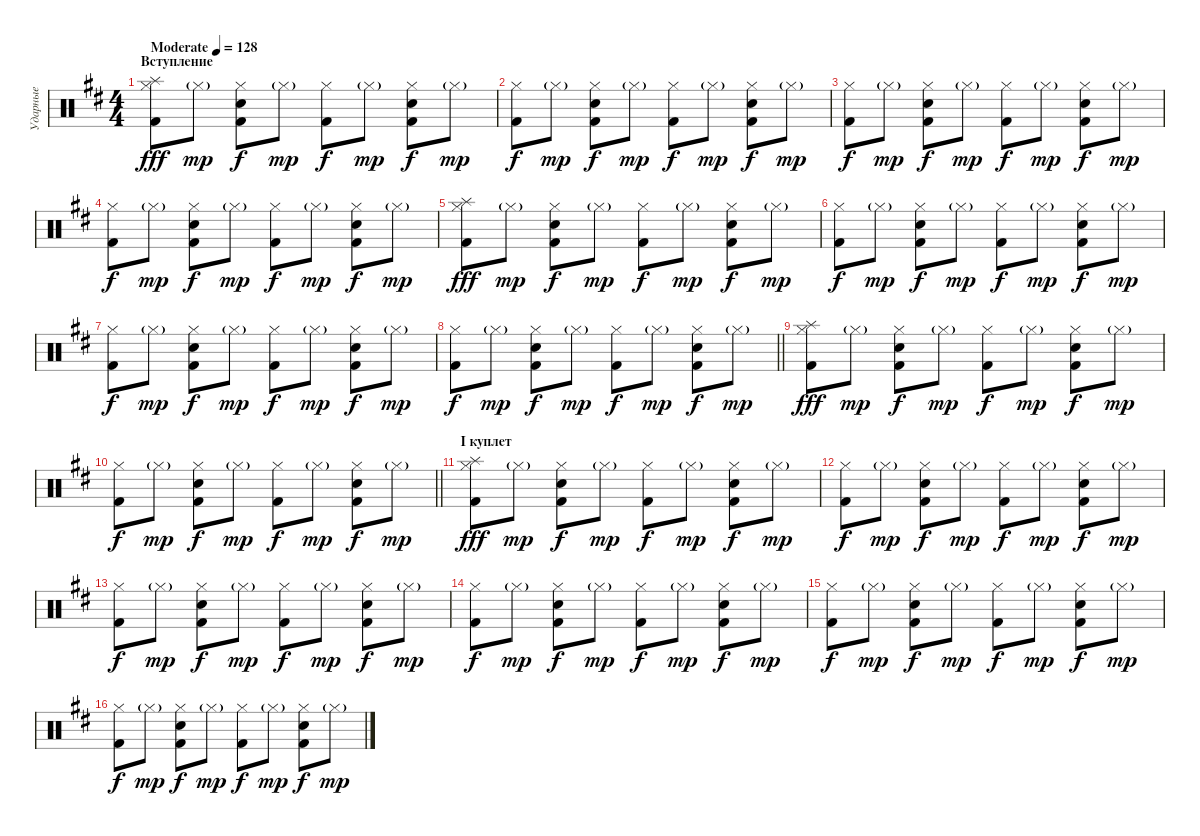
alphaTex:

\track ("Ударные" "Ударные") {instrument percussion}
\staff {score}
\articulation defaults
\ts (4 4)
\section ("" "Вступление")
\tempo (128 "Moderate")
\clef neutral
\ks bminor
("Hi-Hat (closed)" "Splash (hit)" "Kick (hit) 2").8{dy fff} "Hi-Hat (closed)"{g}.8{dy mp} ("Hi-Hat (closed)" "Kick (hit) 2" "Snare (hit) 2").8{dy f} "Hi-Hat (closed)"{g}.8{dy mp} ("Hi-Hat (closed)" "Kick (hit) 2").8{dy f} "Hi-Hat (closed)"{g}.8{dy mp} ("Hi-Hat (closed)" "Kick (hit) 2" "Snare (hit) 2").8{dy f} "Hi-Hat (closed)"{g}.8{dy mp} |
("Hi-Hat (closed)" "Kick (hit) 2").8{dy f} "Hi-Hat (closed)"{g}.8{dy mp} ("Hi-Hat (closed)" "Kick (hit) 2" "Snare (hit) 2").8{dy f} "Hi-Hat (closed)"{g}.8{dy mp} ("Hi-Hat (closed)" "Kick (hit) 2").8{dy f} "Hi-Hat (closed)"{g}.8{dy mp} ("Hi-Hat (closed)" "Kick (hit) 2" "Snare (hit) 2").8{dy f} "Hi-Hat (closed)"{g}.8{dy mp} |
("Hi-Hat (closed)" "Kick (hit) 2").8{dy f} "Hi-Hat (closed)"{g}.8{dy mp} ("Hi-Hat (closed)" "Kick (hit) 2" "Snare (hit) 2").8{dy f} "Hi-Hat (closed)"{g}.8{dy mp} ("Hi-Hat (closed)" "Kick (hit) 2").8{dy f} "Hi-Hat (closed)"{g}.8{dy mp} ("Hi-Hat (closed)" "Kick (hit) 2" "Snare (hit) 2").8{dy f} "Hi-Hat (closed)"{g}.8{dy mp} |
("Hi-Hat (closed)" "Kick (hit) 2").8{dy f} "Hi-Hat (closed)"{g}.8{dy mp} ("Hi-Hat (closed)" "Kick (hit) 2" "Snare (hit) 2").8{dy f} "Hi-Hat (closed)"{g}.8{dy mp} ("Hi-Hat (closed)" "Kick (hit) 2").8{dy f} "Hi-Hat (closed)"{g}.8{dy mp} ("Hi-Hat (closed)" "Kick (hit) 2" "Snare (hit) 2").8{dy f} "Hi-Hat (closed)"{g}.8{dy mp} |
("Hi-Hat (closed)" "Splash (hit)" "Kick (hit) 2").8{dy fff} "Hi-Hat (closed)"{g}.8{dy mp} ("Hi-Hat (closed)" "Kick (hit) 2" "Snare (hit) 2").8{dy f} "Hi-Hat (closed)"{g}.8{dy mp} ("Hi-Hat (closed)" "Kick (hit) 2").8{dy f} "Hi-Hat (closed)"{g}.8{dy mp} ("Hi-Hat (closed)" "Kick (hit) 2" "Snare (hit) 2").8{dy f} "Hi-Hat (closed)"{g}.8{dy mp} |
("Hi-Hat (closed)" "Kick (hit) 2").8{dy f} "Hi-Hat (closed)"{g}.8{dy mp} ("Hi-Hat (closed)" "Kick (hit) 2" "Snare (hit) 2").8{dy f} "Hi-Hat (closed)"{g}.8{dy mp} ("Hi-Hat (closed)" "Kick (hit) 2").8{dy f} "Hi-Hat (closed)"{g}.8{dy mp} ("Hi-Hat (closed)" "Kick (hit) 2" "Snare (hit) 2").8{dy f} "Hi-Hat (closed)"{g}.8{dy mp} |
("Hi-Hat (closed)" "Kick (hit) 2").8{dy f} "Hi-Hat (closed)"{g}.8{dy mp} ("Hi-Hat (closed)" "Kick (hit) 2" "Snare (hit) 2").8{dy f} "Hi-Hat (closed)"{g}.8{dy mp} ("Hi-Hat (closed)" "Kick (hit) 2").8{dy f} "Hi-Hat (closed)"{g}.8{dy mp} ("Hi-Hat (closed)" "Kick (hit) 2" "Snare (hit) 2").8{dy f} "Hi-Hat (closed)"{g}.8{dy mp} |
\barLineRight lightlight
("Hi-Hat (closed)" "Kick (hit) 2").8{dy f} "Hi-Hat (closed)"{g}.8{dy mp} ("Hi-Hat (closed)" "Kick (hit) 2" "Snare (hit) 2").8{dy f} "Hi-Hat (closed)"{g}.8{dy mp} ("Hi-Hat (closed)" "Kick (hit) 2").8{dy f} "Hi-Hat (closed)"{g}.8{dy mp} ("Hi-Hat (closed)" "Kick (hit) 2" "Snare (hit) 2").8{dy f} "Hi-Hat (closed)"{g}.8{dy mp} |
\section ("" "")
("Hi-Hat (closed)" "Splash (hit)" "Kick (hit) 2").8{dy fff} "Hi-Hat (closed)"{g}.8{dy mp} ("Hi-Hat (closed)" "Kick (hit) 2" "Snare (hit) 2").8{dy f} "Hi-Hat (closed)"{g}.8{dy mp} ("Hi-Hat (closed)" "Kick (hit) 2").8{dy f} "Hi-Hat (closed)"{g}.8{dy mp} ("Hi-Hat (closed)" "Kick (hit) 2" "Snare (hit) 2").8{dy f} "Hi-Hat (closed)"{g}.8{dy mp} |
\barLineRight lightlight
("Hi-Hat (closed)" "Kick (hit) 2").8{dy f} "Hi-Hat (closed)"{g}.8{dy mp} ("Hi-Hat (closed)" "Kick (hit) 2" "Snare (hit) 2").8{dy f} "Hi-Hat (closed)"{g}.8{dy mp} ("Hi-Hat (closed)" "Kick (hit) 2").8{dy f} "Hi-Hat (closed)"{g}.8{dy mp} ("Hi-Hat (closed)" "Kick (hit) 2" "Snare (hit) 2").8{dy f} "Hi-Hat (closed)"{g}.8{dy mp} |
\section ("" "I куплет")
("Hi-Hat (closed)" "Splash (hit)" "Kick (hit) 2").8{dy fff} "Hi-Hat (closed)"{g}.8{dy mp} ("Hi-Hat (closed)" "Kick (hit) 2" "Snare (hit) 2").8{dy f} "Hi-Hat (closed)"{g}.8{dy mp} ("Hi-Hat (closed)" "Kick (hit) 2").8{dy f} "Hi-Hat (closed)"{g}.8{dy mp} ("Hi-Hat (closed)" "Kick (hit) 2" "Snare (hit) 2").8{dy f} "Hi-Hat (closed)"{g}.8{dy mp} |
("Hi-Hat (closed)" "Kick (hit) 2").8{dy f} "Hi-Hat (closed)"{g}.8{dy mp} ("Hi-Hat (closed)" "Kick (hit) 2" "Snare (hit) 2").8{dy f} "Hi-Hat (closed)"{g}.8{dy mp} ("Hi-Hat (closed)" "Kick (hit) 2").8{dy f} "Hi-Hat (closed)"{g}.8{dy mp} ("Hi-Hat (closed)" "Kick (hit) 2" "Snare (hit) 2").8{dy f} "Hi-Hat (closed)"{g}.8{dy mp} |
("Hi-Hat (closed)" "Kick (hit) 2").8{dy f} "Hi-Hat (closed)"{g}.8{dy mp} ("Hi-Hat (closed)" "Kick (hit) 2" "Snare (hit) 2").8{dy f} "Hi-Hat (closed)"{g}.8{dy mp} ("Hi-Hat (closed)" "Kick (hit) 2").8{dy f} "Hi-Hat (closed)"{g}.8{dy mp} ("Hi-Hat (closed)" "Kick (hit) 2" "Snare (hit) 2").8{dy f} "Hi-Hat (closed)"{g}.8{dy mp} |
("Hi-Hat (closed)" "Kick (hit) 2").8{dy f} "Hi-Hat (closed)"{g}.8{dy mp} ("Hi-Hat (closed)" "Kick (hit) 2" "Snare (hit) 2").8{dy f} "Hi-Hat (closed)"{g}.8{dy mp} ("Hi-Hat (closed)" "Kick (hit) 2").8{dy f} "Hi-Hat (closed)"{g}.8{dy mp} ("Hi-Hat (closed)" "Kick (hit) 2" "Snare (hit) 2").8{dy f} "Hi-Hat (closed)"{g}.8{dy mp} |
("Hi-Hat (closed)" "Kick (hit) 2").8{dy f} "Hi-Hat (closed)"{g}.8{dy mp} ("Hi-Hat (closed)" "Kick (hit) 2" "Snare (hit) 2").8{dy f} "Hi-Hat (closed)"{g}.8{dy mp} ("Hi-Hat (closed)" "Kick (hit) 2").8{dy f} "Hi-Hat (closed)"{g}.8{dy mp} ("Hi-Hat (closed)" "Kick (hit) 2" "Snare (hit) 2").8{dy f} "Hi-Hat (closed)"{g}.8{dy mp} |
("Hi-Hat (closed)" "Kick (hit) 2").8{dy f} "Hi-Hat (closed)"{g}.8{dy mp} ("Hi-Hat (closed)" "Kick (hit) 2" "Snare (hit) 2").8{dy f} "Hi-Hat (closed)"{g}.8{dy mp} ("Hi-Hat (closed)" "Kick (hit) 2").8{dy f} "Hi-Hat (closed)"{g}.8{dy mp} ("Hi-Hat (closed)" "Kick (hit) 2" "Snare (hit) 2").8{dy f} "Hi-Hat (closed)"{g}.8{dy mp}
